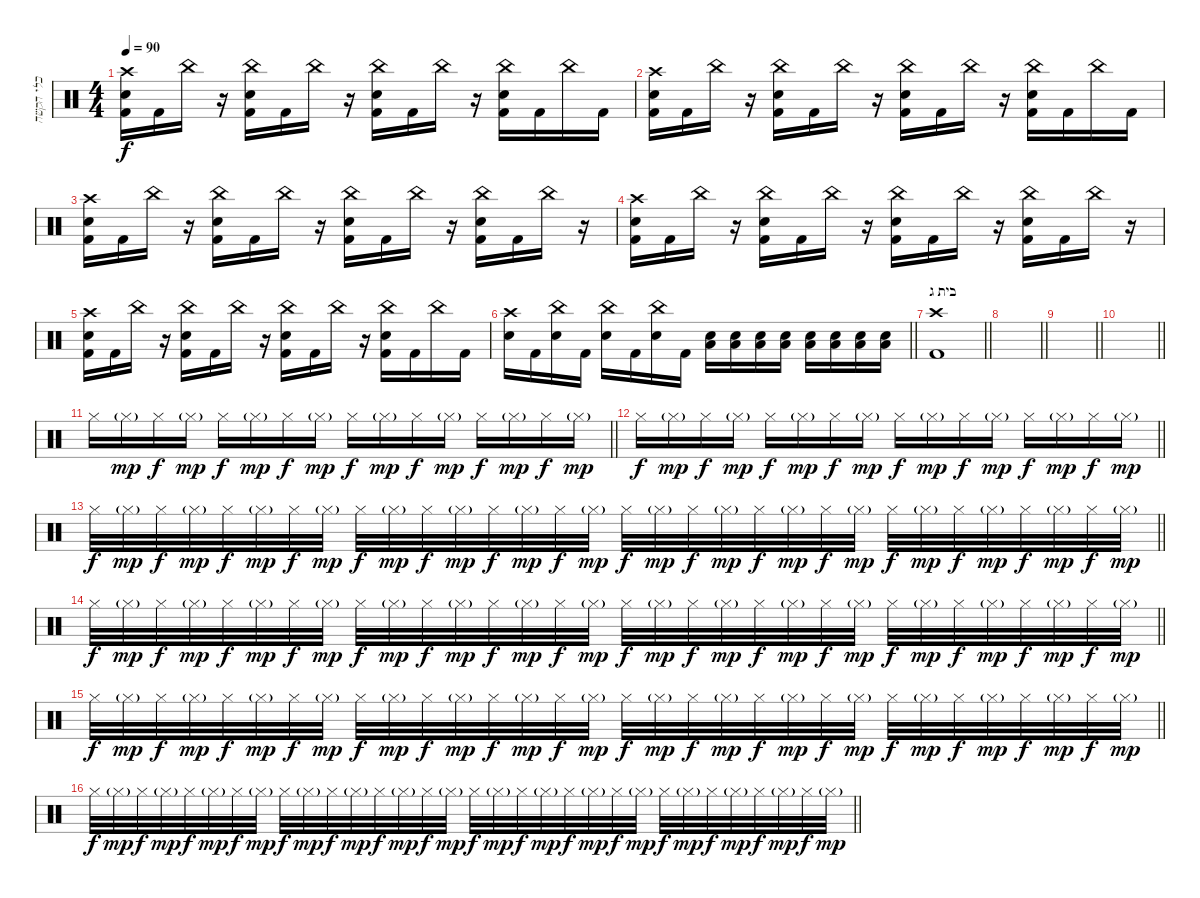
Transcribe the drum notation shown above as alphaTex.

\track ("כלי הקשה" "כלי הקשה") {instrument percussion}
\staff {score}
\articulation defaults
\ts (4 4)
\tempo 90
\clef neutral
\ks c
("Kick (hit) 2" "Crash high (hit)" "Electric Snare (hit)").16{dy f} "Kick (hit) 2".16 "China (hit)".16 r.16 ("Kick (hit) 2" "China (hit)" "Electric Snare (hit)").16 "Kick (hit) 2".16 "China (hit)".16 r.16 ("Kick (hit) 2" "China (hit)" "Electric Snare (hit)").16 "Kick (hit) 2".16 "China (hit)".16 r.16 ("Kick (hit) 2" "China (hit)" "Electric Snare (hit)").16 "Kick (hit) 2".16 "China (hit)".16 "Kick (hit) 2".16 |
("Kick (hit) 2" "Crash high (hit)" "Electric Snare (hit)").16 "Kick (hit) 2".16 "China (hit)".16 r.16 ("Kick (hit) 2" "China (hit)" "Electric Snare (hit)").16 "Kick (hit) 2".16 "China (hit)".16 r.16 ("Kick (hit) 2" "China (hit)" "Electric Snare (hit)").16 "Kick (hit) 2".16 "China (hit)".16 r.16 ("Kick (hit) 2" "China (hit)" "Electric Snare (hit)").16 "Kick (hit) 2".16 "China (hit)".16 "Kick (hit) 2".16 |
("Kick (hit) 2" "Crash high (hit)" "Electric Snare (hit)").16 "Kick (hit) 2".16 "China (hit)".16 r.16 ("Kick (hit) 2" "China (hit)" "Electric Snare (hit)").16 "Kick (hit) 2".16 "China (hit)".16 r.16 ("Kick (hit) 2" "China (hit)" "Electric Snare (hit)").16 "Kick (hit) 2".16 "China (hit)".16 r.16 ("Kick (hit) 2" "China (hit)" "Electric Snare (hit)").16 "Kick (hit) 2".16 "China (hit)".16 r.16 |
("Kick (hit) 2" "Crash high (hit)" "Electric Snare (hit)").16 "Kick (hit) 2".16 "China (hit)".16 r.16 ("Kick (hit) 2" "China (hit)" "Electric Snare (hit)").16 "Kick (hit) 2".16 "China (hit)".16 r.16 ("Kick (hit) 2" "China (hit)" "Electric Snare (hit)").16 "Kick (hit) 2".16 "China (hit)".16 r.16 ("Kick (hit) 2" "China (hit)" "Electric Snare (hit)").16 "Kick (hit) 2".16 "China (hit)".16 r.16 |
("Kick (hit) 2" "Crash high (hit)" "Electric Snare (hit)").16 "Kick (hit) 2".16 "China (hit)".16 r.16 ("Kick (hit) 2" "China (hit)" "Electric Snare (hit)").16 "Kick (hit) 2".16 "China (hit)".16 r.16 ("Kick (hit) 2" "China (hit)" "Electric Snare (hit)").16 "Kick (hit) 2".16 "China (hit)".16 r.16 ("Kick (hit) 2" "China (hit)" "Electric Snare (hit)").16 "Kick (hit) 2".16 "China (hit)".16 "Kick (hit) 2".16 |
\barLineRight lightlight
("Crash high (hit)" "Electric Snare (hit)").16 "Kick (hit) 2".16 ("China (hit)" "Electric Snare (hit)").16 "Kick (hit) 2".16 ("China (hit)" "Electric Snare (hit)").16 "Kick (hit) 2".16 ("China (hit)" "Electric Snare (hit)").16 "Kick (hit) 2".16 ("Electric Snare (hit)" "Low Floor Tom (hit)").16 ("Electric Snare (hit)" "Low Floor Tom (hit)").16 ("Electric Snare (hit)" "Low Floor Tom (hit)").16 ("Electric Snare (hit)" "Low Floor Tom (hit)").16 ("Electric Snare (hit)" "Low Floor Tom (hit)").16 ("Electric Snare (hit)" "Low Floor Tom (hit)").16 ("Electric Snare (hit)" "Low Floor Tom (hit)").16 ("Electric Snare (hit)" "Low Floor Tom (hit)").16 |
\section ("" "בית ג")
\barLineRight lightlight
("Crash high (hit)" "Kick (hit) 2").1 |
\barLineRight lightlight
|
\barLineRight lightlight
|
\barLineRight lightlight
|
\barLineRight lightlight "Hi-Hat (closed)".16 "Hi-Hat (closed)"{g}.16{dy mp} "Hi-Hat (closed)".16{dy f} "Hi-Hat (closed)"{g}.16{dy mp} "Hi-Hat (closed)".16{dy f} "Hi-Hat (closed)"{g}.16{dy mp} "Hi-Hat (closed)".16{dy f} "Hi-Hat (closed)"{g}.16{dy mp} "Hi-Hat (closed)".16{dy f} "Hi-Hat (closed)"{g}.16{dy mp} "Hi-Hat (closed)".16{dy f} "Hi-Hat (closed)"{g}.16{dy mp} "Hi-Hat (closed)".16{dy f} "Hi-Hat (closed)"{g}.16{dy mp} "Hi-Hat (closed)".16{dy f} "Hi-Hat (closed)"{g}.16{dy mp}
|
\barLineRight lightlight "Hi-Hat (closed)".16{dy f} "Hi-Hat (closed)"{g}.16{dy mp} "Hi-Hat (closed)".16{dy f} "Hi-Hat (closed)"{g}.16{dy mp} "Hi-Hat (closed)".16{dy f} "Hi-Hat (closed)"{g}.16{dy mp} "Hi-Hat (closed)".16{dy f} "Hi-Hat (closed)"{g}.16{dy mp} "Hi-Hat (closed)".16{dy f} "Hi-Hat (closed)"{g}.16{dy mp} "Hi-Hat (closed)".16{dy f} "Hi-Hat (closed)"{g}.16{dy mp} "Hi-Hat (closed)".16{dy f} "Hi-Hat (closed)"{g}.16{dy mp} "Hi-Hat (closed)".16{dy f} "Hi-Hat (closed)"{g}.16{dy mp}
|
\barLineRight lightlight "Hi-Hat (closed)".32{dy f} "Hi-Hat (closed)"{g}.32{dy mp} "Hi-Hat (closed)".32{dy f} "Hi-Hat (closed)"{g}.32{dy mp} "Hi-Hat (closed)".32{dy f} "Hi-Hat (closed)"{g}.32{dy mp} "Hi-Hat (closed)".32{dy f} "Hi-Hat (closed)"{g}.32{dy mp} "Hi-Hat (closed)".32{dy f} "Hi-Hat (closed)"{g}.32{dy mp} "Hi-Hat (closed)".32{dy f} "Hi-Hat (closed)"{g}.32{dy mp} "Hi-Hat (closed)".32{dy f} "Hi-Hat (closed)"{g}.32{dy mp} "Hi-Hat (closed)".32{dy f} "Hi-Hat (closed)"{g}.32{dy mp} "Hi-Hat (closed)".32{dy f} "Hi-Hat (closed)"{g}.32{dy mp} "Hi-Hat (closed)".32{dy f} "Hi-Hat (closed)"{g}.32{dy mp} "Hi-Hat (closed)".32{dy f} "Hi-Hat (closed)"{g}.32{dy mp} "Hi-Hat (closed)".32{dy f} "Hi-Hat (closed)"{g}.32{dy mp} "Hi-Hat (closed)".32{dy f} "Hi-Hat (closed)"{g}.32{dy mp} "Hi-Hat (closed)".32{dy f} "Hi-Hat (closed)"{g}.32{dy mp} "Hi-Hat (closed)".32{dy f} "Hi-Hat (closed)"{g}.32{dy mp} "Hi-Hat (closed)".32{dy f} "Hi-Hat (closed)"{g}.32{dy mp}
|
\barLineRight lightlight "Hi-Hat (closed)".32{dy f} "Hi-Hat (closed)"{g}.32{dy mp} "Hi-Hat (closed)".32{dy f} "Hi-Hat (closed)"{g}.32{dy mp} "Hi-Hat (closed)".32{dy f} "Hi-Hat (closed)"{g}.32{dy mp} "Hi-Hat (closed)".32{dy f} "Hi-Hat (closed)"{g}.32{dy mp} "Hi-Hat (closed)".32{dy f} "Hi-Hat (closed)"{g}.32{dy mp} "Hi-Hat (closed)".32{dy f} "Hi-Hat (closed)"{g}.32{dy mp} "Hi-Hat (closed)".32{dy f} "Hi-Hat (closed)"{g}.32{dy mp} "Hi-Hat (closed)".32{dy f} "Hi-Hat (closed)"{g}.32{dy mp} "Hi-Hat (closed)".32{dy f} "Hi-Hat (closed)"{g}.32{dy mp} "Hi-Hat (closed)".32{dy f} "Hi-Hat (closed)"{g}.32{dy mp} "Hi-Hat (closed)".32{dy f} "Hi-Hat (closed)"{g}.32{dy mp} "Hi-Hat (closed)".32{dy f} "Hi-Hat (closed)"{g}.32{dy mp} "Hi-Hat (closed)".32{dy f} "Hi-Hat (closed)"{g}.32{dy mp} "Hi-Hat (closed)".32{dy f} "Hi-Hat (closed)"{g}.32{dy mp} "Hi-Hat (closed)".32{dy f} "Hi-Hat (closed)"{g}.32{dy mp} "Hi-Hat (closed)".32{dy f} "Hi-Hat (closed)"{g}.32{dy mp}
|
\barLineRight lightlight "Hi-Hat (closed)".32{dy f} "Hi-Hat (closed)"{g}.32{dy mp} "Hi-Hat (closed)".32{dy f} "Hi-Hat (closed)"{g}.32{dy mp} "Hi-Hat (closed)".32{dy f} "Hi-Hat (closed)"{g}.32{dy mp} "Hi-Hat (closed)".32{dy f} "Hi-Hat (closed)"{g}.32{dy mp} "Hi-Hat (closed)".32{dy f} "Hi-Hat (closed)"{g}.32{dy mp} "Hi-Hat (closed)".32{dy f} "Hi-Hat (closed)"{g}.32{dy mp} "Hi-Hat (closed)".32{dy f} "Hi-Hat (closed)"{g}.32{dy mp} "Hi-Hat (closed)".32{dy f} "Hi-Hat (closed)"{g}.32{dy mp} "Hi-Hat (closed)".32{dy f} "Hi-Hat (closed)"{g}.32{dy mp} "Hi-Hat (closed)".32{dy f} "Hi-Hat (closed)"{g}.32{dy mp} "Hi-Hat (closed)".32{dy f} "Hi-Hat (closed)"{g}.32{dy mp} "Hi-Hat (closed)".32{dy f} "Hi-Hat (closed)"{g}.32{dy mp} "Hi-Hat (closed)".32{dy f} "Hi-Hat (closed)"{g}.32{dy mp} "Hi-Hat (closed)".32{dy f} "Hi-Hat (closed)"{g}.32{dy mp} "Hi-Hat (closed)".32{dy f} "Hi-Hat (closed)"{g}.32{dy mp} "Hi-Hat (closed)".32{dy f} "Hi-Hat (closed)"{g}.32{dy mp}
|
\barLineRight lightlight "Hi-Hat (closed)".32{dy f} "Hi-Hat (closed)"{g}.32{dy mp} "Hi-Hat (closed)".32{dy f} "Hi-Hat (closed)"{g}.32{dy mp} "Hi-Hat (closed)".32{dy f} "Hi-Hat (closed)"{g}.32{dy mp} "Hi-Hat (closed)".32{dy f} "Hi-Hat (closed)"{g}.32{dy mp} "Hi-Hat (closed)".32{dy f} "Hi-Hat (closed)"{g}.32{dy mp} "Hi-Hat (closed)".32{dy f} "Hi-Hat (closed)"{g}.32{dy mp} "Hi-Hat (closed)".32{dy f} "Hi-Hat (closed)"{g}.32{dy mp} "Hi-Hat (closed)".32{dy f} "Hi-Hat (closed)"{g}.32{dy mp} "Hi-Hat (closed)".32{dy f} "Hi-Hat (closed)"{g}.32{dy mp} "Hi-Hat (closed)".32{dy f} "Hi-Hat (closed)"{g}.32{dy mp} "Hi-Hat (closed)".32{dy f} "Hi-Hat (closed)"{g}.32{dy mp} "Hi-Hat (closed)".32{dy f} "Hi-Hat (closed)"{g}.32{dy mp} "Hi-Hat (closed)".32{dy f} "Hi-Hat (closed)"{g}.32{dy mp} "Hi-Hat (closed)".32{dy f} "Hi-Hat (closed)"{g}.32{dy mp} "Hi-Hat (closed)".32{dy f} "Hi-Hat (closed)"{g}.32{dy mp} "Hi-Hat (closed)".32{dy f} "Hi-Hat (closed)"{g}.32{dy mp}
